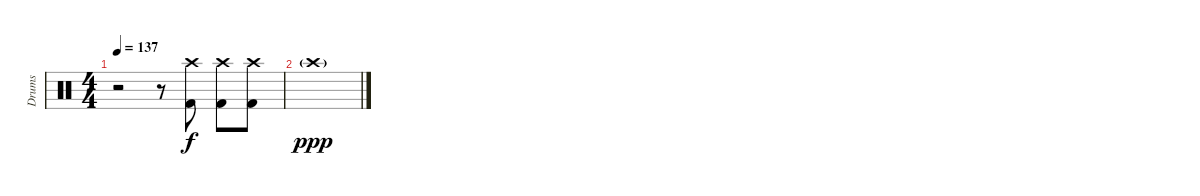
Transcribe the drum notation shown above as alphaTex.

\track ("Drums" "Drums") {instrument percussion}
\staff {score}
\articulation defaults
\ts (4 4)
\tempo 137
\clef neutral
\ks c
r.2{dy f} r.8 ("Crash high (hit)" "Kick (hit) 2").8 ("Crash high (hit)" "Kick (hit) 2").8 ("Crash high (hit)" "Kick (hit) 2").8 |
"Crash high (hit)"{g}.1{dy ppp}
